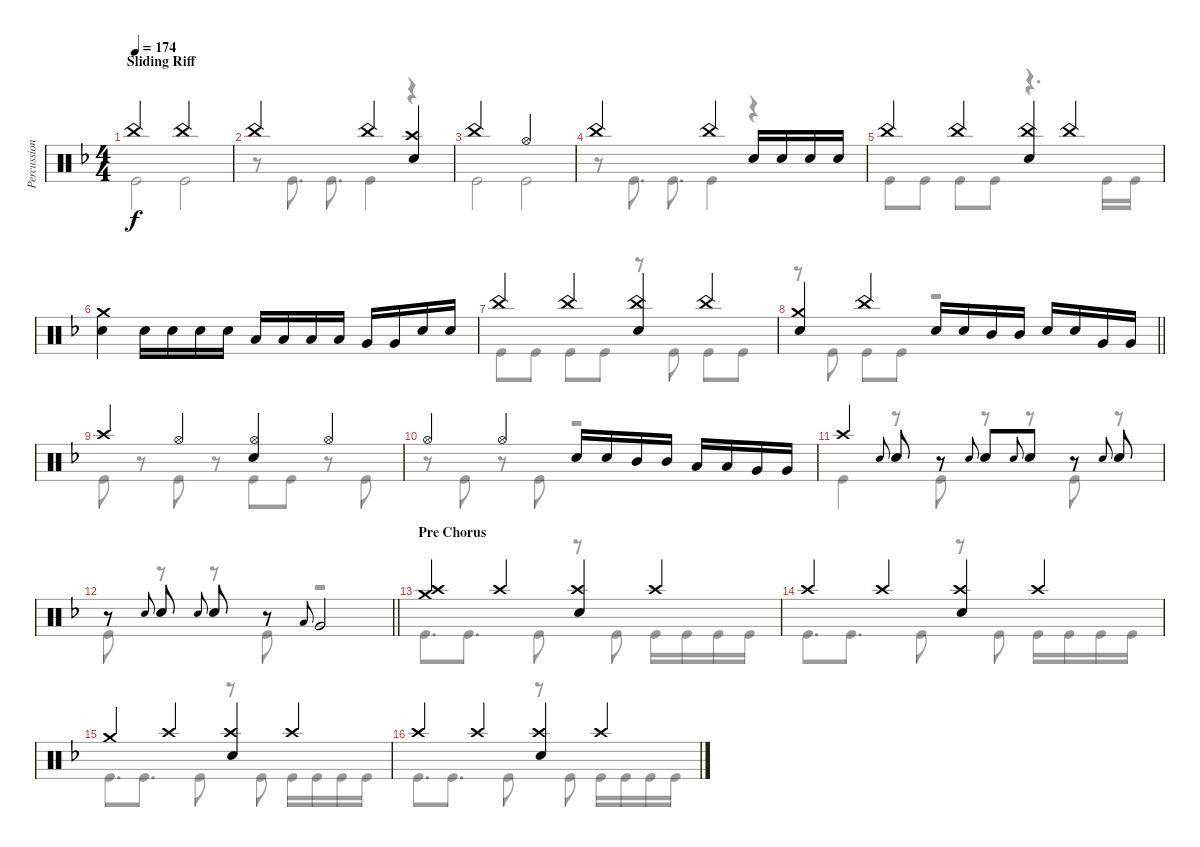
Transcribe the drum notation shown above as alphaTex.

\track ("Percussion" "Percussion") {instrument percussion}
\staff {score}
\articulation defaults
\voice
\ts (4 4)
\section ("" "Sliding Riff")
\tempo 174
\clef neutral
\ks dminor "China (hit)".2{dy f} "China (hit)".2
|
"China (hit)".2 "China (hit)".4 ("Crash high (hit)" "Electric Snare (hit)").4 |
"China (hit)".2 "Hi-Hat (open)".2 |
"China (hit)".2 "China (hit)".4 "Electric Snare (hit)".16 "Electric Snare (hit)".16 "Electric Snare (hit)".16 "Electric Snare (hit)".16 |
"China (hit)".4 "China (hit)".4 ("China (hit)" "Electric Snare (hit)").4 "China (hit)".4 |
("Crash medium (hit)" "Electric Snare (hit)").4 "Electric Snare (hit)".16 "Electric Snare (hit)".16 "Electric Snare (hit)".16 "Electric Snare (hit)".16 "Low Tom (hit)".16 "Low Tom (hit)".16 "Low Tom (hit)".16 "Low Tom (hit)".16 "Very Low Tom (hit)".16 "Very Low Tom (hit)".16 "Electric Snare (hit)".16 "Electric Snare (hit)".16 |
"China (hit)".4 "China (hit)".4 ("China (hit)" "Electric Snare (hit)").4 "China (hit)".4 |
\barLineRight lightlight
("Crash medium (hit)" "Electric Snare (hit)").4 "China (hit)".4 "Electric Snare (hit)".16 "Electric Snare (hit)".16 "Mid Tom (hit)".16 "Mid Tom (hit)".16 "Electric Snare (hit)".16 "Electric Snare (hit)".16 "Very Low Tom (hit)".16 "Very Low Tom (hit)".16 |
\section ("" "")
"Crash high (hit)".4 "Hi-Hat (open)".4 ("Hi-Hat (open)" "Electric Snare (hit)").4 "Hi-Hat (open)".4 |
"Hi-Hat (open)".4 "Hi-Hat (open)".4 "Electric Snare (hit)".16 "Electric Snare (hit)".16 "Mid Tom (hit)".16 "Mid Tom (hit)".16 "Low Tom (hit)".16 "Low Tom (hit)".16 "Very Low Tom (hit)".16 "Very Low Tom (hit)".16 |
"Crash high (hit)".4 "Electric Snare (hit)".8{gr onbeat} "Electric Snare (hit)".8 r.8 "Electric Snare (hit)".8{gr onbeat} "Electric Snare (hit)".8 "Electric Snare (hit)".8{gr onbeat} "Electric Snare (hit)".8 r.8 "Electric Snare (hit)".8{gr onbeat} "Electric Snare (hit)".8 |
\barLineRight lightlight
r.8 "Electric Snare (hit)".8{gr onbeat} "Electric Snare (hit)".8 "Electric Snare (hit)".8{gr onbeat} "Electric Snare (hit)".8 r.8 "Low Tom (hit)".8{gr onbeat} "Very Low Tom (hit)".2 |
\section ("" "Pre Chorus")
("Crash medium (hit)" "Crash high (hit)").4 "Crash high (hit)".4 ("Crash high (hit)" "Electric Snare (hit)").4 "Crash high (hit)".4 |
"Crash high (hit)".4 "Crash high (hit)".4 ("Crash high (hit)" "Electric Snare (hit)").4 "Crash high (hit)".4 |
"Crash medium (hit)".4 "Crash high (hit)".4 ("Crash high (hit)" "Electric Snare (hit)").4 "Crash high (hit)".4 |
"Crash high (hit)".4 "Crash high (hit)".4 ("Crash high (hit)" "Electric Snare (hit)").4 "Crash high (hit)".4
\voice
\clef neutral
\ottava regular
\simile none
\ks dminor "Kick (hit)".2{dy f} "Kick (hit)".2
|
r.8 "Kick (hit)".8{d} "Kick (hit)".8{d} "Kick (hit)".4 r.4 |
"Kick (hit)".2 "Kick (hit)".2 |
r.8 "Kick (hit)".8{d} "Kick (hit)".8{d} "Kick (hit)".4 r.4 |
"Kick (hit)".8 "Kick (hit)".8 "Kick (hit)".8 "Kick (hit)".8 r.4{d} "Kick (hit)".16 "Kick (hit)".16 |
|
"Kick (hit)".8 "Kick (hit)".8 "Kick (hit)".8 "Kick (hit)".8 r.8 "Kick (hit)".8 "Kick (hit)".8 "Kick (hit)".8 |
\barLineRight lightlight
r.8 "Kick (hit)".8 "Kick (hit)".8 "Kick (hit)".8 r.2 |
"Kick (hit)".8 r.8 "Kick (hit)".8 r.8 "Kick (hit)".8 "Kick (hit)".8 r.8 "Kick (hit)".8 |
r.8 "Kick (hit)".8 r.8 "Kick (hit)".8 r.2 |
"Kick (hit)".4 r.8 "Kick (hit)".8 r.8 r.8 "Kick (hit)".8 r.8 |
\barLineRight lightlight "Kick (hit)".8
r.8 r.8 "Kick (hit)".8 r.2 |
"Kick (hit)".8{d} "Kick (hit)".8{d} "Kick (hit)".8 r.8 "Kick (hit)".8 "Kick (hit)".16 "Kick (hit)".16 "Kick (hit)".16 "Kick (hit)".16 |
"Kick (hit)".8{d} "Kick (hit)".8{d} "Kick (hit)".8 r.8 "Kick (hit)".8 "Kick (hit)".16 "Kick (hit)".16 "Kick (hit)".16 "Kick (hit)".16 |
"Kick (hit)".8{d} "Kick (hit)".8{d} "Kick (hit)".8 r.8 "Kick (hit)".8 "Kick (hit)".16 "Kick (hit)".16 "Kick (hit)".16 "Kick (hit)".16 |
"Kick (hit)".8{d} "Kick (hit)".8{d} "Kick (hit)".8 r.8 "Kick (hit)".8 "Kick (hit)".16 "Kick (hit)".16 "Kick (hit)".16 "Kick (hit)".16
